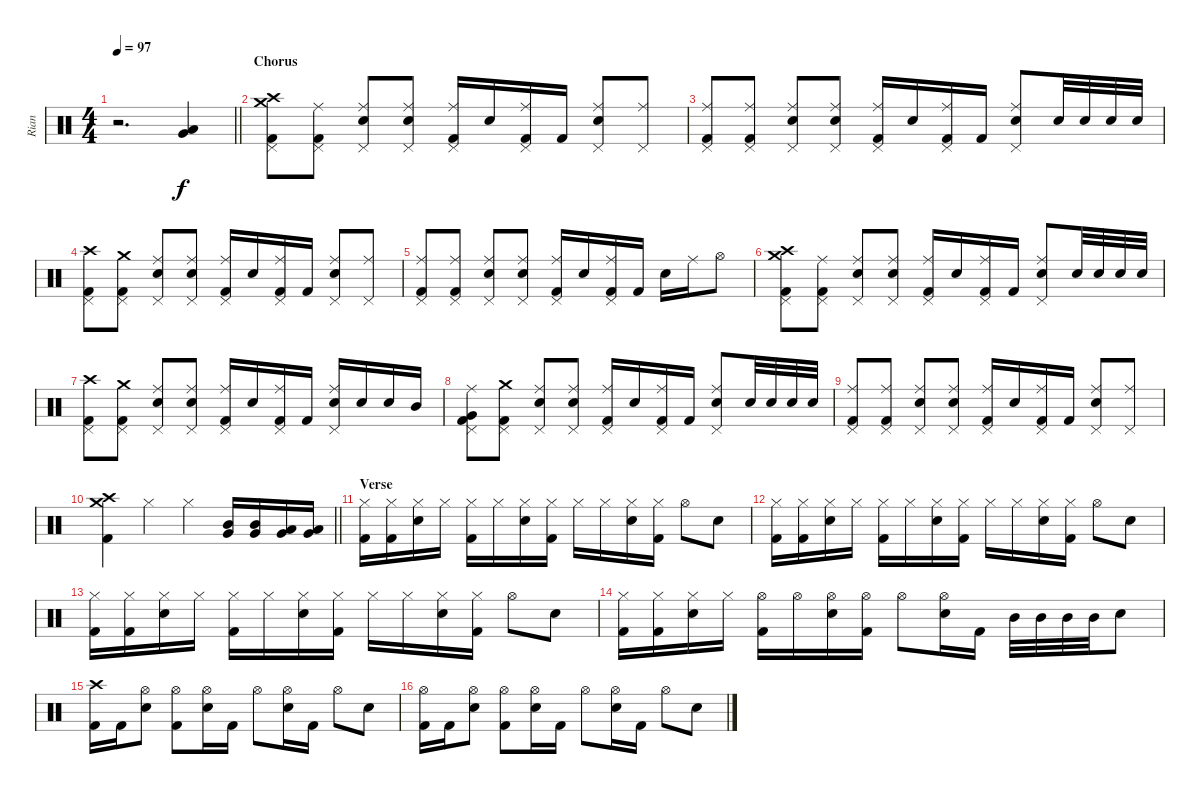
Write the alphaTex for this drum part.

\track ("Rian" "Rian") {instrument percussion}
\staff {score}
\articulation defaults
\ts (4 4)
\tempo 97
\clef neutral
\barLineRight lightlight
\ks c
r.2{d dy f} ("Very Low Tom (hit)" "Low Floor Tom (hit)").4 |
\section ("" "Chorus")
("Crash high (hit)" "Crash medium (hit)" "Pedal Hi-Hat (hit)" "Kick (hit) 2").8 ("Ride (middle)" "Pedal Hi-Hat (hit)" "Kick (hit) 2").8 ("Ride (middle)" "Pedal Hi-Hat (hit)" "Electric Snare (hit)").8 ("Ride (middle)" "Pedal Hi-Hat (hit)" "Electric Snare (hit)").8 ("Ride (middle)" "Pedal Hi-Hat (hit)" "Kick (hit) 2").16 "Electric Snare (hit)".16 ("Ride (middle)" "Pedal Hi-Hat (hit)" "Kick (hit) 2").16 "Kick (hit) 2".16 ("Ride (middle)" "Pedal Hi-Hat (hit)" "Electric Snare (hit)").8 ("Ride (middle)" "Pedal Hi-Hat (hit)").8 |
("Ride (middle)" "Pedal Hi-Hat (hit)" "Kick (hit) 2").8 ("Ride (middle)" "Pedal Hi-Hat (hit)" "Kick (hit) 2").8 ("Ride (middle)" "Pedal Hi-Hat (hit)" "Electric Snare (hit)").8 ("Ride (middle)" "Pedal Hi-Hat (hit)" "Electric Snare (hit)").8 ("Ride (middle)" "Pedal Hi-Hat (hit)" "Kick (hit) 2").16 "Electric Snare (hit)".16 ("Ride (middle)" "Pedal Hi-Hat (hit)" "Kick (hit) 2").16 "Kick (hit) 2".16 ("Ride (middle)" "Pedal Hi-Hat (hit)" "Electric Snare (hit)").8 "Electric Snare (hit)".32 "Electric Snare (hit)".32 "Electric Snare (hit)".32 "Electric Snare (hit)".32 |
("Crash high (hit)" "Pedal Hi-Hat (hit)" "Kick (hit) 2").8 ("Crash medium (hit)" "Pedal Hi-Hat (hit)" "Kick (hit) 2").8 ("Ride (middle)" "Pedal Hi-Hat (hit)" "Electric Snare (hit)").8 ("Ride (middle)" "Pedal Hi-Hat (hit)" "Electric Snare (hit)").8 ("Ride (middle)" "Pedal Hi-Hat (hit)" "Kick (hit) 2").16 "Electric Snare (hit)".16 ("Ride (middle)" "Pedal Hi-Hat (hit)" "Kick (hit) 2").16 "Kick (hit) 2".16 ("Ride (middle)" "Pedal Hi-Hat (hit)" "Electric Snare (hit)").8 ("Ride (middle)" "Pedal Hi-Hat (hit)").8 |
("Ride (middle)" "Pedal Hi-Hat (hit)" "Kick (hit) 2").8 ("Ride (middle)" "Pedal Hi-Hat (hit)" "Kick (hit) 2").8 ("Ride (middle)" "Pedal Hi-Hat (hit)" "Electric Snare (hit)").8 ("Ride (middle)" "Pedal Hi-Hat (hit)" "Electric Snare (hit)").8 ("Ride (middle)" "Pedal Hi-Hat (hit)" "Kick (hit) 2").16 "Electric Snare (hit)".16 ("Ride (middle)" "Pedal Hi-Hat (hit)" "Kick (hit) 2").16 "Kick (hit) 2".16 "Electric Snare (hit)".16 "Ride (middle)".16 "Hi-Hat (open)".8 |
("Crash high (hit)" "Crash medium (hit)" "Pedal Hi-Hat (hit)" "Kick (hit) 2").8 ("Ride (middle)" "Pedal Hi-Hat (hit)" "Kick (hit) 2").8 ("Ride (middle)" "Pedal Hi-Hat (hit)" "Electric Snare (hit)").8 ("Ride (middle)" "Pedal Hi-Hat (hit)" "Electric Snare (hit)").8 ("Ride (middle)" "Pedal Hi-Hat (hit)" "Kick (hit) 2").16 "Electric Snare (hit)".16 ("Ride (middle)" "Pedal Hi-Hat (hit)" "Kick (hit) 2").16 "Kick (hit) 2".16 ("Ride (middle)" "Pedal Hi-Hat (hit)" "Electric Snare (hit)").8 "Electric Snare (hit)".32 "Electric Snare (hit)".32 "Electric Snare (hit)".32 "Electric Snare (hit)".32 |
("Crash high (hit)" "Pedal Hi-Hat (hit)" "Kick (hit) 2").8 ("Crash medium (hit)" "Pedal Hi-Hat (hit)" "Kick (hit) 2").8 ("Ride (middle)" "Pedal Hi-Hat (hit)" "Electric Snare (hit)").8 ("Ride (middle)" "Pedal Hi-Hat (hit)" "Electric Snare (hit)").8 ("Ride (middle)" "Pedal Hi-Hat (hit)" "Kick (hit) 2").16 "Electric Snare (hit)".16 ("Ride (middle)" "Pedal Hi-Hat (hit)" "Kick (hit) 2").16 "Kick (hit) 2".16 ("Ride (middle)" "Pedal Hi-Hat (hit)" "Electric Snare (hit)").16 "Electric Snare (hit)".16 "Electric Snare (hit)".16 "Mid Tom (hit)".16 |
("Ride (middle)" "Pedal Hi-Hat (hit)" "Very Low Tom (hit)" "Kick (hit) 2").8 ("Crash medium (hit)" "Pedal Hi-Hat (hit)" "Kick (hit) 2").8 ("Ride (middle)" "Pedal Hi-Hat (hit)" "Electric Snare (hit)").8 ("Ride (middle)" "Pedal Hi-Hat (hit)" "Electric Snare (hit)").8 ("Ride (middle)" "Pedal Hi-Hat (hit)" "Kick (hit) 2").16 "Electric Snare (hit)".16 ("Ride (middle)" "Pedal Hi-Hat (hit)" "Kick (hit) 2").16 "Kick (hit) 2".16 ("Ride (middle)" "Pedal Hi-Hat (hit)" "Electric Snare (hit)").8 "Electric Snare (hit)".32 "Electric Snare (hit)".32 "Electric Snare (hit)".32 "Electric Snare (hit)".32 |
("Ride (middle)" "Pedal Hi-Hat (hit)" "Kick (hit) 2").8 ("Ride (middle)" "Pedal Hi-Hat (hit)" "Kick (hit) 2").8 ("Ride (middle)" "Pedal Hi-Hat (hit)" "Electric Snare (hit)").8 ("Ride (middle)" "Pedal Hi-Hat (hit)" "Electric Snare (hit)").8 ("Ride (middle)" "Pedal Hi-Hat (hit)" "Kick (hit) 2").16 "Electric Snare (hit)".16 ("Ride (middle)" "Pedal Hi-Hat (hit)" "Kick (hit) 2").16 "Kick (hit) 2".16 ("Ride (middle)" "Pedal Hi-Hat (hit)" "Electric Snare (hit)").8 ("Ride (middle)" "Pedal Hi-Hat (hit)").8 |
\barLineRight lightlight
("Crash high (hit)" "Crash medium (hit)" "Kick (hit) 2").4 "Hi-Hat (closed)".4 "Hi-Hat (closed)".4 ("Mid Tom (hit)" "Very Low Tom (hit)").16 ("Mid Tom (hit)" "Very Low Tom (hit)").16 ("Very Low Tom (hit)" "Low Floor Tom (hit)").16 ("Very Low Tom (hit)" "Low Floor Tom (hit)").16 |
\section ("" "Verse")
("Hi-Hat (closed)" "Kick (hit) 2").16 ("Hi-Hat (closed)" "Kick (hit) 2").16 ("Hi-Hat (closed)" "Electric Snare (hit)").16 "Hi-Hat (closed)".16 ("Hi-Hat (closed)" "Kick (hit) 2").16 "Hi-Hat (closed)".16 ("Hi-Hat (closed)" "Electric Snare (hit)").16 ("Hi-Hat (closed)" "Kick (hit) 2").16 "Hi-Hat (closed)".16 "Hi-Hat (closed)".16 ("Hi-Hat (closed)" "Electric Snare (hit)").16 ("Hi-Hat (closed)" "Kick (hit) 2").16 "Hi-Hat (open)".8 "Electric Snare (hit)".8 |
("Hi-Hat (closed)" "Kick (hit) 2").16 ("Hi-Hat (closed)" "Kick (hit) 2").16 ("Hi-Hat (closed)" "Electric Snare (hit)").16 "Hi-Hat (closed)".16 ("Hi-Hat (closed)" "Kick (hit) 2").16 "Hi-Hat (closed)".16 ("Hi-Hat (closed)" "Electric Snare (hit)").16 ("Hi-Hat (closed)" "Kick (hit) 2").16 "Hi-Hat (closed)".16 "Hi-Hat (closed)".16 ("Hi-Hat (closed)" "Electric Snare (hit)").16 ("Hi-Hat (closed)" "Kick (hit) 2").16 "Hi-Hat (open)".8 "Electric Snare (hit)".8 |
("Hi-Hat (closed)" "Kick (hit) 2").16 ("Hi-Hat (closed)" "Kick (hit) 2").16 ("Hi-Hat (closed)" "Electric Snare (hit)").16 "Hi-Hat (closed)".16 ("Hi-Hat (closed)" "Kick (hit) 2").16 "Hi-Hat (closed)".16 ("Hi-Hat (closed)" "Electric Snare (hit)").16 ("Hi-Hat (closed)" "Kick (hit) 2").16 "Hi-Hat (closed)".16 "Hi-Hat (closed)".16 ("Hi-Hat (closed)" "Electric Snare (hit)").16 ("Hi-Hat (closed)" "Kick (hit) 2").16 "Hi-Hat (open)".8 "Electric Snare (hit)".8 |
("Hi-Hat (closed)" "Kick (hit) 2").16 ("Hi-Hat (closed)" "Kick (hit) 2").16 ("Hi-Hat (closed)" "Electric Snare (hit)").16 "Hi-Hat (closed)".16 ("Hi-Hat (open)" "Kick (hit) 2").16 "Hi-Hat (open)".16 ("Hi-Hat (open)" "Electric Snare (hit)").16 ("Hi-Hat (open)" "Kick (hit) 2").16 "Hi-Hat (open)".8 ("Hi-Hat (open)" "Electric Snare (hit)").16 "Kick (hit) 2".16 "Mid Tom (hit)".32 "Mid Tom (hit)".32 "Mid Tom (hit)".32 "Mid Tom (hit)".32 "Electric Snare (hit)".8 |
("Crash high (hit)" "Kick (hit) 2").16 "Kick (hit) 2".16 ("Hi-Hat (open)" "Electric Snare (hit)").8 ("Hi-Hat (open)" "Kick (hit) 2").8 ("Hi-Hat (open)" "Electric Snare (hit)").16 "Kick (hit) 2".16 "Hi-Hat (open)".8 ("Hi-Hat (open)" "Electric Snare (hit)").16 "Kick (hit) 2".16 "Hi-Hat (open)".8 "Electric Snare (hit)".8 |
("Hi-Hat (open)" "Kick (hit) 2").16 "Kick (hit) 2".16 ("Hi-Hat (open)" "Electric Snare (hit)").8 ("Hi-Hat (open)" "Kick (hit) 2").8 ("Hi-Hat (open)" "Electric Snare (hit)").16 "Kick (hit) 2".16 "Hi-Hat (open)".8 ("Hi-Hat (open)" "Electric Snare (hit)").16 "Kick (hit) 2".16 "Hi-Hat (open)".8 "Electric Snare (hit)".8
